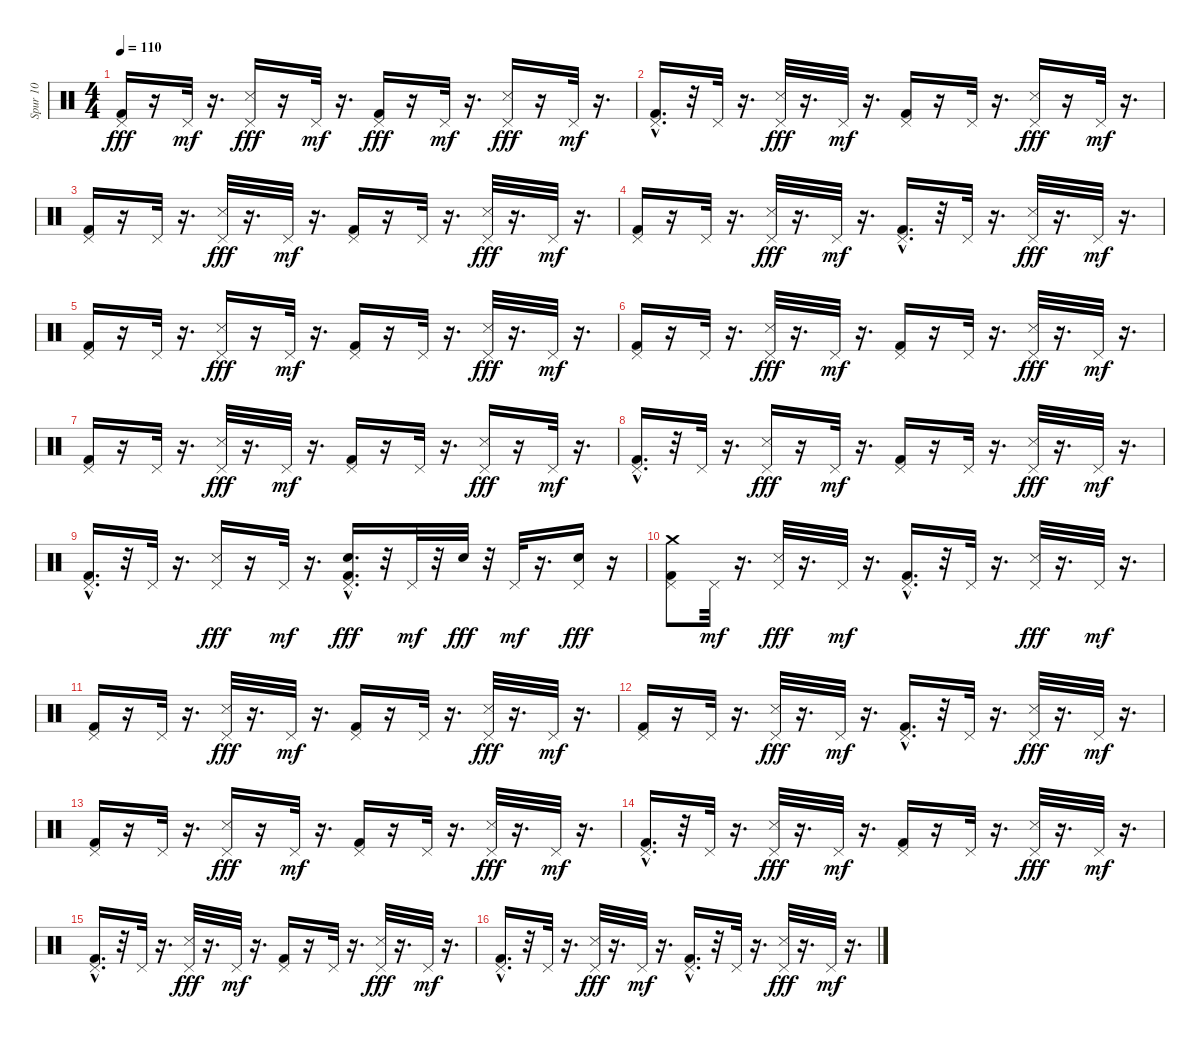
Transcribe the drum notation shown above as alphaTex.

\track ("Spur 10" "Spur 10") {instrument percussion}
\staff {score}
\articulation defaults
\ts (4 4)
\tempo 110
\clef neutral
\ks c
("Pedal Hi-Hat (hit)" "Kick (hit) 2").16{dy fff} r.16 "Pedal Hi-Hat (hit)".32{dy mf} r.16{d} ("Pedal Hi-Hat (hit)" "Snare (side stick) 3").16{dy fff} r.16 "Pedal Hi-Hat (hit)".32{dy mf} r.16{d} ("Pedal Hi-Hat (hit)" "Kick (hit) 2").16{dy fff} r.16 "Pedal Hi-Hat (hit)".32{dy mf} r.16{d} ("Pedal Hi-Hat (hit)" "Snare (side stick) 3").16{dy fff} r.16 "Pedal Hi-Hat (hit)".32{dy mf} r.16{d} |
("Kick (hit) 2"{hac} "Pedal Hi-Hat (hit)").16{d} r.32 "Pedal Hi-Hat (hit)".32 r.16{d} ("Pedal Hi-Hat (hit)" "Snare (side stick) 3").32{dy fff} r.16{d} "Pedal Hi-Hat (hit)".32{dy mf} r.16{d} ("Kick (hit) 2" "Pedal Hi-Hat (hit)").16 r.16 "Pedal Hi-Hat (hit)".32 r.16{d} ("Pedal Hi-Hat (hit)" "Snare (side stick) 3").16{dy fff} r.16 "Pedal Hi-Hat (hit)".32{dy mf} r.16{d} |
("Kick (hit) 2" "Pedal Hi-Hat (hit)").16 r.16 "Pedal Hi-Hat (hit)".32 r.16{d} ("Pedal Hi-Hat (hit)" "Snare (side stick) 3").32{dy fff} r.16{d} "Pedal Hi-Hat (hit)".32{dy mf} r.16{d} ("Kick (hit) 2" "Pedal Hi-Hat (hit)").16 r.16 "Pedal Hi-Hat (hit)".32 r.16{d} ("Pedal Hi-Hat (hit)" "Snare (side stick) 3").32{dy fff} r.16{d} "Pedal Hi-Hat (hit)".32{dy mf} r.16{d} |
("Kick (hit) 2" "Pedal Hi-Hat (hit)").16 r.16 "Pedal Hi-Hat (hit)".32 r.16{d} ("Pedal Hi-Hat (hit)" "Snare (side stick) 3").32{dy fff} r.16{d} "Pedal Hi-Hat (hit)".32{dy mf} r.16{d} ("Kick (hit) 2"{hac} "Pedal Hi-Hat (hit)").16{d} r.32 "Pedal Hi-Hat (hit)".32 r.16{d} ("Pedal Hi-Hat (hit)" "Snare (side stick) 3").32{dy fff} r.16{d} "Pedal Hi-Hat (hit)".32{dy mf} r.16{d} |
("Kick (hit) 2" "Pedal Hi-Hat (hit)").16 r.16 "Pedal Hi-Hat (hit)".32 r.16{d} ("Pedal Hi-Hat (hit)" "Snare (side stick) 3").16{dy fff} r.16 "Pedal Hi-Hat (hit)".32{dy mf} r.16{d} ("Kick (hit) 2" "Pedal Hi-Hat (hit)").16 r.16 "Pedal Hi-Hat (hit)".32 r.16{d} ("Pedal Hi-Hat (hit)" "Snare (side stick) 3").32{dy fff} r.16{d} "Pedal Hi-Hat (hit)".32{dy mf} r.16{d} |
("Kick (hit) 2" "Pedal Hi-Hat (hit)").16 r.16 "Pedal Hi-Hat (hit)".32 r.16{d} ("Pedal Hi-Hat (hit)" "Snare (side stick) 3").32{dy fff} r.16{d} "Pedal Hi-Hat (hit)".32{dy mf} r.16{d} ("Kick (hit) 2" "Pedal Hi-Hat (hit)").16 r.16 "Pedal Hi-Hat (hit)".32 r.16{d} ("Pedal Hi-Hat (hit)" "Snare (side stick) 3").32{dy fff} r.16{d} "Pedal Hi-Hat (hit)".32{dy mf} r.16{d} |
("Kick (hit) 2" "Pedal Hi-Hat (hit)").16 r.16 "Pedal Hi-Hat (hit)".32 r.16{d} ("Pedal Hi-Hat (hit)" "Snare (side stick) 3").32{dy fff} r.16{d} "Pedal Hi-Hat (hit)".32{dy mf} r.16{d} ("Kick (hit) 2" "Pedal Hi-Hat (hit)").16 r.16 "Pedal Hi-Hat (hit)".32 r.16{d} ("Pedal Hi-Hat (hit)" "Snare (side stick) 3").16{dy fff} r.16 "Pedal Hi-Hat (hit)".32{dy mf} r.16{d} |
("Kick (hit) 2"{hac} "Pedal Hi-Hat (hit)").16{d} r.32 "Pedal Hi-Hat (hit)".32 r.16{d} ("Pedal Hi-Hat (hit)" "Snare (side stick) 3").16{dy fff} r.16 "Pedal Hi-Hat (hit)".32{dy mf} r.16{d} ("Kick (hit) 2" "Pedal Hi-Hat (hit)").16 r.16 "Pedal Hi-Hat (hit)".32 r.16{d} ("Pedal Hi-Hat (hit)" "Snare (side stick) 3").32{dy fff} r.16{d} "Pedal Hi-Hat (hit)".32{dy mf} r.16{d} |
("Kick (hit) 2"{hac} "Pedal Hi-Hat (hit)").16{d} r.32 "Pedal Hi-Hat (hit)".32 r.16{d} ("Pedal Hi-Hat (hit)" "Snare (side stick) 3").16{dy fff} r.16 "Pedal Hi-Hat (hit)".32{dy mf} r.16{d} ("Kick (hit) 2"{hac} "Pedal Hi-Hat (hit)" "Electric Snare (hit)").16{d dy fff} r.32 "Pedal Hi-Hat (hit)".32{dy mf} r.32 "Electric Snare (hit)".32{dy fff} r.32 "Pedal Hi-Hat (hit)".32{dy mf} r.16{d} ("Pedal Hi-Hat (hit)" "Electric Snare (hit)").16{dy fff} r.16 |
("Kick (hit) 2" "Pedal Hi-Hat (hit)" "Crash medium (hit)").8 "Pedal Hi-Hat (hit)".32{dy mf} r.16{d} ("Pedal Hi-Hat (hit)" "Snare (side stick) 3").32{dy fff} r.16{d} "Pedal Hi-Hat (hit)".32{dy mf} r.16{d} ("Kick (hit) 2"{hac} "Pedal Hi-Hat (hit)").16{d} r.32 "Pedal Hi-Hat (hit)".32 r.16{d} ("Pedal Hi-Hat (hit)" "Snare (side stick) 3").32{dy fff} r.16{d} "Pedal Hi-Hat (hit)".32{dy mf} r.16{d} |
("Kick (hit) 2" "Pedal Hi-Hat (hit)").16 r.16 "Pedal Hi-Hat (hit)".32 r.16{d} ("Pedal Hi-Hat (hit)" "Snare (side stick) 3").32{dy fff} r.16{d} "Pedal Hi-Hat (hit)".32{dy mf} r.16{d} ("Kick (hit) 2" "Pedal Hi-Hat (hit)").16 r.16 "Pedal Hi-Hat (hit)".32 r.16{d} ("Pedal Hi-Hat (hit)" "Snare (side stick) 3").32{dy fff} r.16{d} "Pedal Hi-Hat (hit)".32{dy mf} r.16{d} |
("Kick (hit) 2" "Pedal Hi-Hat (hit)").16 r.16 "Pedal Hi-Hat (hit)".32 r.16{d} ("Pedal Hi-Hat (hit)" "Snare (side stick) 3").32{dy fff} r.16{d} "Pedal Hi-Hat (hit)".32{dy mf} r.16{d} ("Kick (hit) 2"{hac} "Pedal Hi-Hat (hit)").16{d} r.32 "Pedal Hi-Hat (hit)".32 r.16{d} ("Pedal Hi-Hat (hit)" "Snare (side stick) 3").32{dy fff} r.16{d} "Pedal Hi-Hat (hit)".32{dy mf} r.16{d} |
("Kick (hit) 2" "Pedal Hi-Hat (hit)").16 r.16 "Pedal Hi-Hat (hit)".32 r.16{d} ("Pedal Hi-Hat (hit)" "Snare (side stick) 3").16{dy fff} r.16 "Pedal Hi-Hat (hit)".32{dy mf} r.16{d} ("Kick (hit) 2" "Pedal Hi-Hat (hit)").16 r.16 "Pedal Hi-Hat (hit)".32 r.16{d} ("Pedal Hi-Hat (hit)" "Snare (side stick) 3").32{dy fff} r.16{d} "Pedal Hi-Hat (hit)".32{dy mf} r.16{d} |
("Kick (hit) 2"{hac} "Pedal Hi-Hat (hit)").16{d} r.32 "Pedal Hi-Hat (hit)".32 r.16{d} ("Pedal Hi-Hat (hit)" "Snare (side stick) 3").32{dy fff} r.16{d} "Pedal Hi-Hat (hit)".32{dy mf} r.16{d} ("Kick (hit) 2" "Pedal Hi-Hat (hit)").16 r.16 "Pedal Hi-Hat (hit)".32 r.16{d} ("Pedal Hi-Hat (hit)" "Snare (side stick) 3").32{dy fff} r.16{d} "Pedal Hi-Hat (hit)".32{dy mf} r.16{d} |
("Kick (hit) 2"{hac} "Pedal Hi-Hat (hit)").16{d} r.32 "Pedal Hi-Hat (hit)".32 r.16{d} ("Pedal Hi-Hat (hit)" "Snare (side stick) 3").32{dy fff} r.16{d} "Pedal Hi-Hat (hit)".32{dy mf} r.16{d} ("Kick (hit) 2" "Pedal Hi-Hat (hit)").16 r.16 "Pedal Hi-Hat (hit)".32 r.16{d} ("Pedal Hi-Hat (hit)" "Snare (side stick) 3").32{dy fff} r.16{d} "Pedal Hi-Hat (hit)".32{dy mf} r.16{d} |
("Kick (hit) 2"{hac} "Pedal Hi-Hat (hit)").16{d} r.32 "Pedal Hi-Hat (hit)".32 r.16{d} ("Pedal Hi-Hat (hit)" "Snare (side stick) 3").32{dy fff} r.16{d} "Pedal Hi-Hat (hit)".32{dy mf} r.16{d} ("Kick (hit) 2"{hac} "Pedal Hi-Hat (hit)").16{d} r.32 "Pedal Hi-Hat (hit)".32 r.16{d} ("Pedal Hi-Hat (hit)" "Snare (side stick) 3").32{dy fff} r.16{d} "Pedal Hi-Hat (hit)".32{dy mf} r.16{d}
